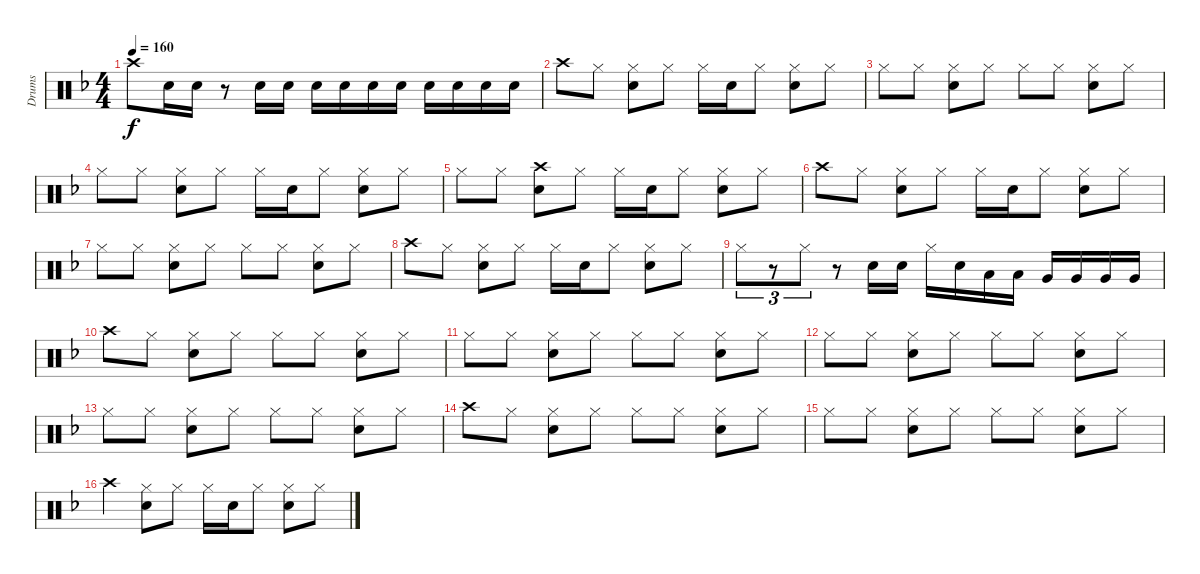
\track ("Drums" "Drums") {instrument percussion}
\staff {score}
\articulation defaults
\ts (4 4)
\tempo 160
\clef neutral
\ks f "Crash high (hit)".8{dy f} "Snare (hit) 2".16 "Snare (hit) 2".16
r.8 "Snare (hit) 2".16 "Snare (hit) 2".16 "Snare (hit) 2".16 "Snare (hit) 2".16 "Snare (hit) 2".16 "Snare (hit) 2".16 "Snare (hit) 2".16 "Snare (hit) 2".16 "Snare (hit) 2".16 "Snare (hit) 2".16 |
"Crash high (hit)".8 "Hi-Hat (closed)".8 ("Hi-Hat (closed)" "Snare (hit) 2").8 "Hi-Hat (closed)".8 "Hi-Hat (closed)".16 "Snare (hit) 2".16 "Hi-Hat (closed)".8 ("Hi-Hat (closed)" "Snare (hit) 2").8 "Hi-Hat (closed)".8 |
"Hi-Hat (closed)".8 "Hi-Hat (closed)".8 ("Hi-Hat (closed)" "Snare (hit) 2").8 "Hi-Hat (closed)".8 "Hi-Hat (closed)".8 "Hi-Hat (closed)".8 ("Hi-Hat (closed)" "Snare (hit) 2").8 "Hi-Hat (closed)".8 |
"Hi-Hat (closed)".8 "Hi-Hat (closed)".8 ("Hi-Hat (closed)" "Snare (hit) 2").8 "Hi-Hat (closed)".8 "Hi-Hat (closed)".16 "Snare (hit) 2".16 "Hi-Hat (closed)".8 ("Hi-Hat (closed)" "Snare (hit) 2").8 "Hi-Hat (closed)".8 |
"Hi-Hat (closed)".8 "Hi-Hat (closed)".8 ("Crash high (hit)" "Snare (hit) 2").8 "Hi-Hat (closed)".8 "Hi-Hat (closed)".16 "Snare (hit) 2".16 "Hi-Hat (closed)".8 ("Hi-Hat (closed)" "Snare (hit) 2").8 "Hi-Hat (closed)".8 |
"Crash high (hit)".8 "Hi-Hat (closed)".8 ("Hi-Hat (closed)" "Snare (hit) 2").8 "Hi-Hat (closed)".8 "Hi-Hat (closed)".16 "Snare (hit) 2".16 "Hi-Hat (closed)".8 ("Hi-Hat (closed)" "Snare (hit) 2").8 "Hi-Hat (closed)".8 |
"Hi-Hat (closed)".8 "Hi-Hat (closed)".8 ("Hi-Hat (closed)" "Snare (hit) 2").8 "Hi-Hat (closed)".8 "Hi-Hat (closed)".8 "Hi-Hat (closed)".8 ("Hi-Hat (closed)" "Snare (hit) 2").8 "Hi-Hat (closed)".8 |
"Crash high (hit)".8 "Hi-Hat (closed)".8 ("Hi-Hat (closed)" "Snare (hit) 2").8 "Hi-Hat (closed)".8 "Hi-Hat (closed)".16 "Snare (hit) 2".16 "Hi-Hat (closed)".8 ("Hi-Hat (closed)" "Snare (hit) 2").8 "Hi-Hat (closed)".8 |
"Hi-Hat (closed)".8{tu (3 2)} r.8{tu (3 2)} "Hi-Hat (closed)".8{tu (3 2)} r.8 "Snare (hit) 2".16 "Snare (hit) 2".16 "Hi-Hat (closed)".16 "Snare (hit) 2".16 "Low Tom (hit)".16 "Low Tom (hit)".16 "Very Low Tom (hit)".16 "Very Low Tom (hit)".16 "Very Low Tom (hit)".16 "Very Low Tom (hit)".16 |
"Crash high (hit)".8 "Hi-Hat (closed)".8 ("Hi-Hat (closed)" "Snare (hit) 2").8 "Hi-Hat (closed)".8 "Hi-Hat (closed)".8 "Hi-Hat (closed)".8 ("Hi-Hat (closed)" "Snare (hit) 2").8 "Hi-Hat (closed)".8 |
"Hi-Hat (closed)".8 "Hi-Hat (closed)".8 ("Hi-Hat (closed)" "Snare (hit) 2").8 "Hi-Hat (closed)".8 "Hi-Hat (closed)".8 "Hi-Hat (closed)".8 ("Hi-Hat (closed)" "Snare (hit) 2").8 "Hi-Hat (closed)".8 |
"Hi-Hat (closed)".8 "Hi-Hat (closed)".8 ("Hi-Hat (closed)" "Snare (hit) 2").8 "Hi-Hat (closed)".8 "Hi-Hat (closed)".8 "Hi-Hat (closed)".8 ("Hi-Hat (closed)" "Snare (hit) 2").8 "Hi-Hat (closed)".8 |
"Hi-Hat (closed)".8 "Hi-Hat (closed)".8 ("Hi-Hat (closed)" "Snare (hit) 2").8 "Hi-Hat (closed)".8 "Hi-Hat (closed)".8 "Hi-Hat (closed)".8 ("Hi-Hat (closed)" "Snare (hit) 2").8 "Hi-Hat (closed)".8 |
"Crash high (hit)".8 "Hi-Hat (closed)".8 ("Hi-Hat (closed)" "Snare (hit) 2").8 "Hi-Hat (closed)".8 "Hi-Hat (closed)".8 "Hi-Hat (closed)".8 ("Hi-Hat (closed)" "Snare (hit) 2").8 "Hi-Hat (closed)".8 |
"Hi-Hat (closed)".8 "Hi-Hat (closed)".8 ("Hi-Hat (closed)" "Snare (hit) 2").8 "Hi-Hat (closed)".8 "Hi-Hat (closed)".8 "Hi-Hat (closed)".8 ("Hi-Hat (closed)" "Snare (hit) 2").8 "Hi-Hat (closed)".8 |
"Crash high (hit)".4 ("Hi-Hat (closed)" "Snare (hit) 2").8 "Hi-Hat (closed)".8 "Hi-Hat (closed)".16 "Snare (hit) 2".16 "Hi-Hat (closed)".8 ("Hi-Hat (closed)" "Snare (hit) 2").8 "Hi-Hat (closed)".8
